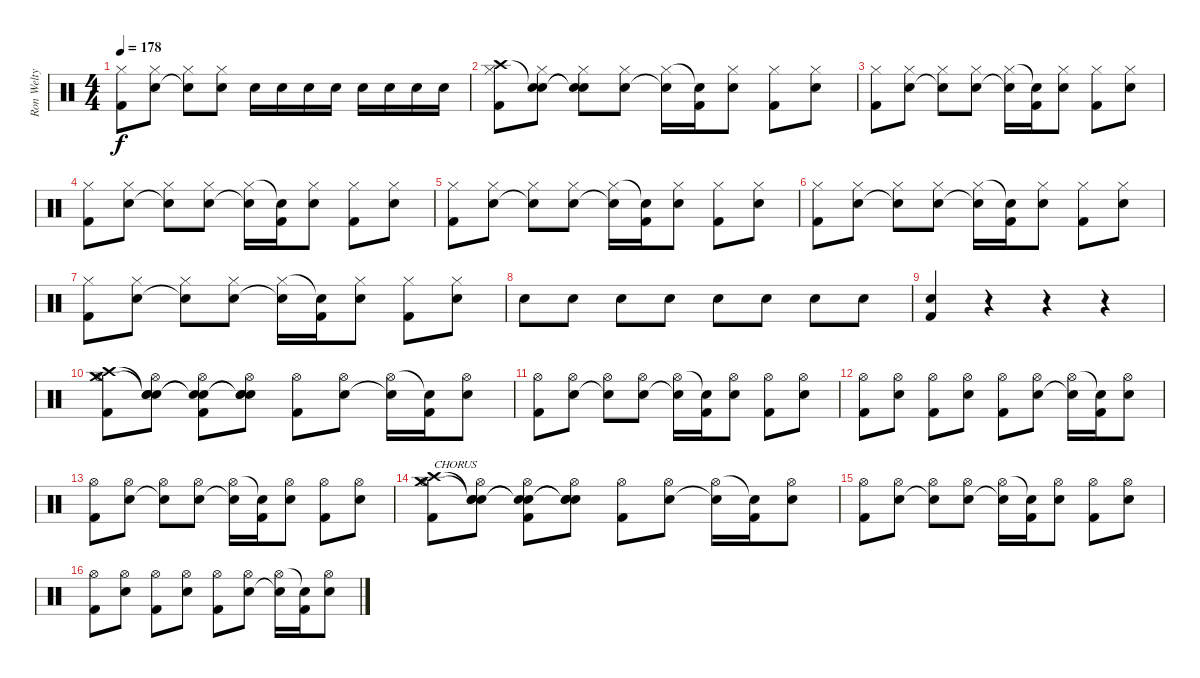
\track ("Ron Welty (Drums)" "Ron Welty ") {instrument percussion}
\staff {score}
\articulation defaults
\ts (4 4)
\tempo 178
\clef neutral
\ks c
("Hi-Hat (closed)" "Kick (hit) 2").8{dy f} ("Hi-Hat (closed)" "Electric Snare (hit)").8 ("Hi-Hat (closed)" "Snare (hit)"{t}).8 ("Hi-Hat (closed)" "Electric Snare (hit)").8 "Electric Snare (hit)".16 "Electric Snare (hit)".16 "Electric Snare (hit)".16 "Electric Snare (hit)".16 "Electric Snare (hit)".16 "Electric Snare (hit)".16 "Electric Snare (hit)".16 "Electric Snare (hit)".16 |
("Crash high (hit)" "Hi-Hat (closed)" "Kick (hit) 2").8 ("Snare (hit)"{t} "Hi-Hat (closed)" "Electric Snare (hit)").8 ("Snare (hit)"{t} "Hi-Hat (closed)" "Snare (hit)"{t}).8 ("Hi-Hat (closed)" "Electric Snare (hit)").8 ("Hi-Hat (closed)" "Snare (hit)"{t}).16 ("Snare (hit)"{t} "Kick (hit) 2").16 ("Hi-Hat (closed)" "Electric Snare (hit)").8 ("Hi-Hat (closed)" "Kick (hit) 2").8 ("Hi-Hat (closed)" "Electric Snare (hit)").8 |
("Hi-Hat (closed)" "Kick (hit) 2").8 ("Hi-Hat (closed)" "Electric Snare (hit)").8 ("Hi-Hat (closed)" "Snare (hit)"{t}).8 ("Hi-Hat (closed)" "Electric Snare (hit)").8 ("Hi-Hat (closed)" "Snare (hit)"{t}).16 ("Snare (hit)"{t} "Kick (hit) 2").16 ("Hi-Hat (closed)" "Electric Snare (hit)").8 ("Hi-Hat (closed)" "Kick (hit) 2").8 ("Hi-Hat (closed)" "Electric Snare (hit)").8 |
("Hi-Hat (closed)" "Kick (hit) 2").8 ("Hi-Hat (closed)" "Electric Snare (hit)").8 ("Hi-Hat (closed)" "Snare (hit)"{t}).8 ("Hi-Hat (closed)" "Electric Snare (hit)").8 ("Hi-Hat (closed)" "Snare (hit)"{t}).16 ("Snare (hit)"{t} "Kick (hit) 2").16 ("Hi-Hat (closed)" "Electric Snare (hit)").8 ("Hi-Hat (closed)" "Kick (hit) 2").8 ("Hi-Hat (closed)" "Electric Snare (hit)").8 |
("Hi-Hat (closed)" "Kick (hit) 2").8 ("Hi-Hat (closed)" "Electric Snare (hit)").8 ("Hi-Hat (closed)" "Snare (hit)"{t}).8 ("Hi-Hat (closed)" "Electric Snare (hit)").8 ("Hi-Hat (closed)" "Snare (hit)"{t}).16 ("Snare (hit)"{t} "Kick (hit) 2").16 ("Hi-Hat (closed)" "Electric Snare (hit)").8 ("Hi-Hat (closed)" "Kick (hit) 2").8 ("Hi-Hat (closed)" "Electric Snare (hit)").8 |
("Hi-Hat (closed)" "Kick (hit) 2").8 ("Hi-Hat (closed)" "Electric Snare (hit)").8 ("Hi-Hat (closed)" "Snare (hit)"{t}).8 ("Hi-Hat (closed)" "Electric Snare (hit)").8 ("Hi-Hat (closed)" "Snare (hit)"{t}).16 ("Snare (hit)"{t} "Kick (hit) 2").16 ("Hi-Hat (closed)" "Electric Snare (hit)").8 ("Hi-Hat (closed)" "Kick (hit) 2").8 ("Hi-Hat (closed)" "Electric Snare (hit)").8 |
("Hi-Hat (closed)" "Kick (hit) 2").8 ("Hi-Hat (closed)" "Electric Snare (hit)").8 ("Hi-Hat (closed)" "Snare (hit)"{t}).8 ("Hi-Hat (closed)" "Electric Snare (hit)").8 ("Hi-Hat (closed)" "Snare (hit)"{t}).16 ("Snare (hit)"{t} "Kick (hit) 2").16 ("Hi-Hat (closed)" "Electric Snare (hit)").8 ("Hi-Hat (closed)" "Kick (hit) 2").8 ("Hi-Hat (closed)" "Electric Snare (hit)").8 |
"Electric Snare (hit)".8 "Electric Snare (hit)".8 "Electric Snare (hit)".8 "Electric Snare (hit)".8 "Electric Snare (hit)".8 "Electric Snare (hit)".8 "Electric Snare (hit)".8 "Electric Snare (hit)".8 |
("Electric Snare (hit)" "Kick (hit) 2").4 r.4 r.4 r.4 |
("Crash medium (hit)" "Crash high (hit)" "Hi-Hat (open)" "Kick (hit) 2").8 ("Snare (hit)"{t} "Snare (hit)"{t} "Hi-Hat (open)" "Electric Snare (hit)").8 ("Snare (hit)"{t} "Snare (hit)"{t} "Hi-Hat (open)" "Kick (hit) 2").8 ("Snare (hit)"{t} "Snare (hit)"{t} "Hi-Hat (open)" "Electric Snare (hit)").8 ("Hi-Hat (open)" "Kick (hit) 2").8 ("Hi-Hat (open)" "Electric Snare (hit)").8 ("Hi-Hat (open)" "Snare (hit)"{t}).16 ("Snare (hit)"{t} "Kick (hit) 2").16 ("Hi-Hat (open)" "Electric Snare (hit)").8 |
("Hi-Hat (open)" "Kick (hit) 2").8 ("Hi-Hat (open)" "Electric Snare (hit)").8 ("Hi-Hat (open)" "Snare (hit)"{t}).8 ("Hi-Hat (open)" "Electric Snare (hit)").8 ("Hi-Hat (open)" "Snare (hit)"{t}).16 ("Snare (hit)"{t} "Kick (hit) 2").16 ("Hi-Hat (open)" "Electric Snare (hit)").8 ("Hi-Hat (open)" "Kick (hit) 2").8 ("Hi-Hat (open)" "Electric Snare (hit)").8 |
("Hi-Hat (open)" "Kick (hit) 2").8 ("Hi-Hat (open)" "Electric Snare (hit)").8 ("Hi-Hat (open)" "Kick (hit) 2").8 ("Hi-Hat (open)" "Electric Snare (hit)").8 ("Hi-Hat (open)" "Kick (hit) 2").8 ("Hi-Hat (open)" "Electric Snare (hit)").8 ("Hi-Hat (open)" "Snare (hit)"{t}).16 ("Snare (hit)"{t} "Kick (hit) 2").16 ("Hi-Hat (open)" "Electric Snare (hit)").8 |
("Hi-Hat (open)" "Kick (hit) 2").8 ("Hi-Hat (open)" "Electric Snare (hit)").8 ("Hi-Hat (open)" "Snare (hit)"{t}).8 ("Hi-Hat (open)" "Electric Snare (hit)").8 ("Hi-Hat (open)" "Snare (hit)"{t}).16 ("Snare (hit)"{t} "Kick (hit) 2").16 ("Hi-Hat (open)" "Electric Snare (hit)").8 ("Hi-Hat (open)" "Kick (hit) 2").8 ("Hi-Hat (open)" "Electric Snare (hit)").8 |
("Crash medium (hit)" "Crash high (hit)" "Hi-Hat (open)" "Kick (hit) 2").8{txt "CHORUS"} ("Snare (hit)"{t} "Snare (hit)"{t} "Hi-Hat (open)" "Electric Snare (hit)").8 ("Snare (hit)"{t} "Snare (hit)"{t} "Hi-Hat (open)" "Kick (hit) 2").8 ("Snare (hit)"{t} "Snare (hit)"{t} "Hi-Hat (open)" "Electric Snare (hit)").8 ("Hi-Hat (open)" "Kick (hit) 2").8 ("Hi-Hat (open)" "Electric Snare (hit)").8 ("Hi-Hat (open)" "Snare (hit)"{t}).16 ("Snare (hit)"{t} "Kick (hit) 2").16 ("Hi-Hat (open)" "Electric Snare (hit)").8 |
("Hi-Hat (open)" "Kick (hit) 2").8 ("Hi-Hat (open)" "Electric Snare (hit)").8 ("Hi-Hat (open)" "Snare (hit)"{t}).8 ("Hi-Hat (open)" "Electric Snare (hit)").8 ("Hi-Hat (open)" "Snare (hit)"{t}).16 ("Snare (hit)"{t} "Kick (hit) 2").16 ("Hi-Hat (open)" "Electric Snare (hit)").8 ("Hi-Hat (open)" "Kick (hit) 2").8 ("Hi-Hat (open)" "Electric Snare (hit)").8 |
("Hi-Hat (open)" "Kick (hit) 2").8 ("Hi-Hat (open)" "Electric Snare (hit)").8 ("Hi-Hat (open)" "Kick (hit) 2").8 ("Hi-Hat (open)" "Electric Snare (hit)").8 ("Hi-Hat (open)" "Kick (hit) 2").8 ("Hi-Hat (open)" "Electric Snare (hit)").8 ("Hi-Hat (open)" "Snare (hit)"{t}).16 ("Snare (hit)"{t} "Kick (hit) 2").16 ("Hi-Hat (open)" "Electric Snare (hit)").8
